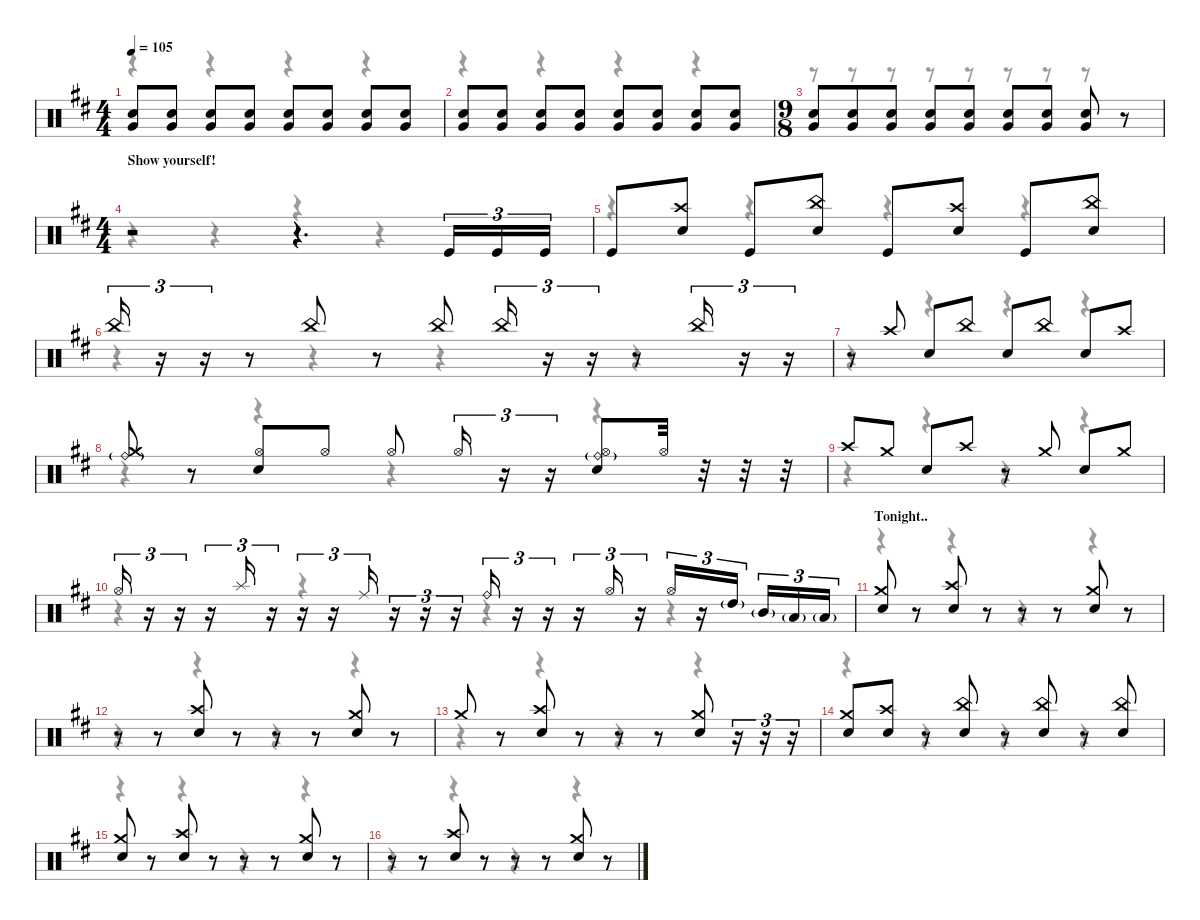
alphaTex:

\defaultSystemsLayout 4
\hideDynamics
\bracketExtendMode nobrackets
\singleTrackTrackNamePolicy hidden
\multiTrackTrackNamePolicy hidden
\firstSystemTrackNameMode fullname
\firstSystemTrackNameOrientation horizontal
\otherSystemsTrackNameOrientation horizontal
\track ("Drums" "drm.") {instrument percussion}
\staff {score}
\articulation defaults
\voice
\ts (4 4)
\tempo 105
\clef neutral
\ks bminor
("Very Low Tom (hit)"{acc forcenatural} "Snare (hit) 2"{acc forcenatural}).8{dy mf beam Up} ("Very Low Tom (hit)"{acc forcenatural} "Snare (hit) 2"{acc forcenatural}).8{dy mp beam Up} ("Very Low Tom (hit)"{acc forcenatural} "Snare (hit) 2"{acc forcenatural}).8{dy mf beam Up} ("Very Low Tom (hit)"{acc forcenatural} "Snare (hit) 2"{acc forcenatural}).8{dy mp beam Up} ("Very Low Tom (hit)"{acc forcenatural} "Snare (hit) 2"{acc forcenatural}).8{dy mf beam Up} ("Very Low Tom (hit)"{acc forcenatural} "Snare (hit) 2"{acc forcenatural}).8{beam Up} ("Very Low Tom (hit)"{acc forcenatural} "Snare (hit) 2"{acc forcenatural}).8{beam Up} ("Very Low Tom (hit)"{acc forcenatural} "Snare (hit) 2"{acc forcenatural}).8{beam Up} |
("Very Low Tom (hit)"{acc forcenatural} "Snare (hit) 2"{acc forcenatural}).8{beam Up} ("Very Low Tom (hit)"{acc forcenatural} "Snare (hit) 2"{acc forcenatural}).8{beam Up} ("Very Low Tom (hit)"{acc forcenatural} "Snare (hit) 2"{acc forcenatural}).8{beam Up} ("Very Low Tom (hit)"{acc forcenatural} "Snare (hit) 2"{acc forcenatural}).8{beam Up} ("Very Low Tom (hit)"{acc forcenatural} "Snare (hit) 2"{acc forcenatural}).8{beam Up} ("Very Low Tom (hit)"{acc forcenatural} "Snare (hit) 2"{acc forcenatural}).8{beam Up} ("Very Low Tom (hit)"{acc forcenatural} "Snare (hit) 2"{acc forcenatural}).8{beam Up} ("Very Low Tom (hit)"{acc forcenatural} "Snare (hit) 2"{acc forcenatural}).8{beam Up} |
\ts (9 8)
\beaming (8 3 2 2 2)
("Very Low Tom (hit)"{acc forcenatural} "Snare (hit) 2"{acc forcenatural}).8{beam Up} ("Very Low Tom (hit)"{acc forcenatural} "Snare (hit) 2"{acc forcenatural}).8{beam Up} ("Very Low Tom (hit)"{acc forcenatural} "Snare (hit) 2"{acc forcenatural}).8{beam Up} ("Very Low Tom (hit)"{acc forcenatural} "Snare (hit) 2"{acc forcenatural}).8{beam Up} ("Very Low Tom (hit)"{acc forcenatural} "Snare (hit) 2"{acc forcenatural}).8{dy f beam Up} ("Very Low Tom (hit)"{acc forcenatural} "Snare (hit) 2"{acc forcenatural}).8{beam Up} ("Very Low Tom (hit)"{acc forcenatural} "Snare (hit) 2"{acc forcenatural}).8{beam Up} ("Very Low Tom (hit)"{acc forcenatural} "Snare (hit) 2"{acc forcenatural}).8{beam Up} r.8{beam Up} |
\ts (4 4)
\beaming (8 2 2 2 2)
\section ("" "Show yourself!")
r.2{beam Up} r.4{d beam Up} "Kick (hit)"{acc forcenatural}.16{tu (3 2) beam Up} "Kick (hit)"{acc forcenatural}.16{tu (3 2) beam Up} "Kick (hit)"{acc forcenatural}.16{tu (3 2) beam Up} |
"Kick (hit)"{acc forcenatural}.8{beam Up} ("Crash high (hit)"{acc forcenatural} "Snare (hit) 2"{acc forcenatural}).8{dy mf beam Up} "Kick (hit)"{acc forcenatural}.8{dy f beam Up} ("China (hit)"{acc forcenatural} "Snare (hit) 2"{acc forcenatural}).8{dy mf beam Up} "Kick (hit)"{acc forcenatural}.8{dy f beam Up} ("Crash high (hit)"{acc forcenatural} "Snare (hit) 2"{acc forcenatural}).8{dy mf beam Up} "Kick (hit)"{acc forcenatural}.8{dy f beam Up} ("China (hit)"{acc forcenatural} "Snare (hit) 2"{acc forcenatural}).8{dy mf beam Up} |
"China (hit)"{acc forcenatural}.16{tu (3 2) beam Up} r.16{tu (3 2) beam Up} r.16{tu (3 2) beam Up} r.8{beam Up} "China (hit)"{acc forcenatural}.8{beam Up} r.8{beam Up} "China (hit)"{acc forcenatural}.8{beam Up} "China (hit)"{acc forcenatural}.16{tu (3 2) dy f beam Up} r.16{tu (3 2) beam Up} r.16{tu (3 2) beam Up} r.8{beam Up} "China (hit)"{acc forcenatural}.16{tu (3 2) beam Up} r.16{tu (3 2) beam Up} r.16{tu (3 2) beam Up} |
r.8{beam Up} "Crash high (hit)"{acc forcenatural}.8{dy mf beam Up} "Snare (hit) 2"{acc forcenatural}.8{dy f beam Up} "China (hit)"{acc forcenatural}.8{beam Up} "Snare (hit) 2"{acc forcenatural}.8{beam Up} "China (hit)"{acc forcenatural}.8{beam Up} "Snare (hit) 2"{acc forcenatural}.8{beam Up} "Crash high (hit)"{acc forcenatural}.8{dy mf beam Up} |
("Ride (bell)"{g acc forcenatural} "Crash medium (hit)"{acc forcenatural}).8{beam Up} r.8{beam Up} ("Hi-Hat (open)"{acc forcenatural} "Snare (hit) 2"{acc forcenatural}).8{beam Up} "Hi-Hat (open)"{acc forcenatural}.8{dy pp beam Up} "Hi-Hat (open)"{acc forcenatural}.8{dy mf beam Up} "Hi-Hat (open)"{acc forcenatural}.16{tu (3 2) dy pp beam Up} r.16{tu (3 2) beam Up} r.16{tu (3 2) beam Up} ("Ride (bell)"{g acc forcenatural} "Hi-Hat (open)"{acc forcenatural} "Snare (hit) 2"{acc forcenatural}).8{dy mf beam Up} "Hi-Hat (open)"{acc forcenatural}.32{dy pp beam Up} r.32{beam Up} r.32{beam Up} r.32{beam Up} |
"Crash high (hit)"{acc forcenatural}.8{dy mf beam Up} "Crash medium (hit)"{acc forcenatural}.8{beam Up} "Snare (hit) 2"{acc forcenatural}.8{dy f beam Up} "Crash high (hit)"{acc forcenatural}.8{dy mf beam Up} r.8{beam Up} "Crash medium (hit)"{acc forcenatural}.8{beam Up} "Snare (hit) 2"{acc forcenatural}.8{dy f beam Up} "Crash medium (hit)"{acc forcenatural}.8{dy mf beam Up} |
"Hi-Hat (open)"{acc forcenatural}.16{tu (3 2) dy mp beam Up} r.16{tu (3 2) beam Up} r.16{tu (3 2) beam Up} r.16{tu (3 2) beam Up} "Splash (hit)"{acc forcenatural}.16{tu (3 2) beam Up} r.16{tu (3 2) beam Up} r.16{tu (3 2) beam Up} r.16{tu (3 2) beam Up} "Ride (middle)"{acc forcenatural}.16{tu (3 2) beam Up} r.16{tu (3 2) beam Up} r.16{tu (3 2) beam Up} r.16{tu (3 2) beam Up} "Ride (bell)"{acc forcenatural}.16{tu (3 2) beam Up} r.16{tu (3 2) beam Up} r.16{tu (3 2) beam Up} r.16{tu (3 2) beam Up} "Hi-Hat (open)"{acc forcenatural}.16{tu (3 2) beam Up} r.16{tu (3 2) beam Up} "Hi-Hat (open)"{acc forcenatural}.16{tu (3 2) dy pp beam Up} r.16{tu (3 2) beam Up} "High Tom (hit)"{g acc forcenatural}.16{tu (3 2) dy f beam Up} "Mid Tom (hit)"{g acc forcenatural}.16{tu (3 2) beam Up} "Low Tom (hit)"{g acc forcenatural}.16{tu (3 2) beam Up} "Low Tom (hit)"{g acc forcenatural}.16{tu (3 2) beam Up} |
\section ("" "Tonight..")
("Crash medium (hit)"{acc forcenatural} "Snare (hit) 2"{acc forcenatural}).8{dy mf beam Up} r.8{beam Up} ("Crash high (hit)"{acc forcenatural} "Snare (hit) 2"{acc forcenatural}).8{beam Up} r.8{beam Up} r.8{beam Up} r.8{beam Up} ("Crash medium (hit)"{acc forcenatural} "Snare (hit) 2"{acc forcenatural}).8{beam Up} r.8{beam Up} |
r.8{beam Up} r.8{beam Up} ("Crash high (hit)"{acc forcenatural} "Snare (hit) 2"{acc forcenatural}).8{beam Up} r.8{beam Up} r.8{beam Up} r.8{beam Up} ("Crash medium (hit)"{acc forcenatural} "Snare (hit) 2"{acc forcenatural}).8{beam Up} r.8{beam Up} |
"Crash medium (hit)"{acc forcenatural}.8{beam Up} r.8{beam Up} ("Crash high (hit)"{acc forcenatural} "Snare (hit) 2"{acc forcenatural}).8{beam Up} r.8{beam Up} r.8{beam Up} r.8{beam Up} ("Crash medium (hit)"{acc forcenatural} "Snare (hit) 2"{acc forcenatural}).8{beam Up} r.16{tu (3 2) beam Up} r.16{tu (3 2) beam Up} r.16{tu (3 2) beam Up} |
("Crash medium (hit)"{acc forcenatural} "Snare (hit) 2"{acc forcenatural}).8{beam Up} ("Crash high (hit)"{acc forcenatural} "Snare (hit) 2"{acc forcenatural}).8{beam Up} r.8{beam Up} ("China (hit)"{acc forcenatural} "Snare (hit) 2"{acc forcenatural}).8{beam Up} r.8{beam Up} ("China (hit)"{acc forcenatural} "Snare (hit) 2"{acc forcenatural}).8{beam Up} r.8{beam Up} ("China (hit)"{acc forcenatural} "Snare (hit) 2"{acc forcenatural}).8{beam Up} |
("Crash medium (hit)"{acc forcenatural} "Snare (hit) 2"{acc forcenatural}).8{beam Up} r.8{beam Up} ("Crash high (hit)"{acc forcenatural} "Snare (hit) 2"{acc forcenatural}).8{beam Up} r.8{beam Up} r.8{beam Up} r.8{beam Up} ("Crash medium (hit)"{acc forcenatural} "Snare (hit) 2"{acc forcenatural}).8{beam Up} r.8{beam Up} |
r.8{beam Up} r.8{beam Up} ("Crash high (hit)"{acc forcenatural} "Snare (hit) 2"{acc forcenatural}).8{beam Up} r.8{beam Up} r.8{beam Up} r.8{beam Up} ("Crash medium (hit)"{acc forcenatural} "Snare (hit) 2"{acc forcenatural}).8{beam Up} r.8{beam Up}
\voice
\clef neutral
\ottava regular
\simile none
\ks bminor
r.4{dy mf beam Down} r.4{beam Down} r.4{beam Down} r.4{beam Down} |
r.4{beam Down} r.4{beam Down} r.4{beam Down} r.4{beam Down} |
r.8{beam Down} r.8{beam Down} r.8{beam Down} r.8{beam Down} r.8{beam Down} r.8{beam Down} r.8{beam Down} r.8{beam Down} r.8{beam Down} |
r.4{beam Down} r.4{beam Down} r.4{beam Down} r.4{beam Down} |
r.4{beam Down} r.4{beam Down} r.4{beam Down} r.4{beam Down} |
r.4{beam Down} r.4{beam Down} r.4{beam Down} r.4{beam Down} |
r.4{beam Down} r.4{beam Down} r.4{beam Down} r.4{beam Down} |
r.4{beam Down} r.4{beam Down} r.4{beam Down} r.4{beam Down} |
r.4{beam Down} r.4{beam Down} r.4{beam Down} r.4{beam Down} |
r.4{beam Down} r.4{beam Down} r.4{beam Down} r.4{beam Down} |
r.4{beam Down} r.4{beam Down} r.4{beam Down} r.4{beam Down} |
r.4{beam Down} r.4{beam Down} r.4{beam Down} r.4{beam Down} |
r.4{beam Down} r.4{beam Down} r.4{beam Down} r.4{beam Down} |
r.4{beam Down} r.4{beam Down} r.4{beam Down} r.4{beam Down} |
r.4{beam Down} r.4{beam Down} r.4{beam Down} r.4{beam Down} |
r.4{beam Down} r.4{beam Down} r.4{beam Down} r.4{beam Down}
